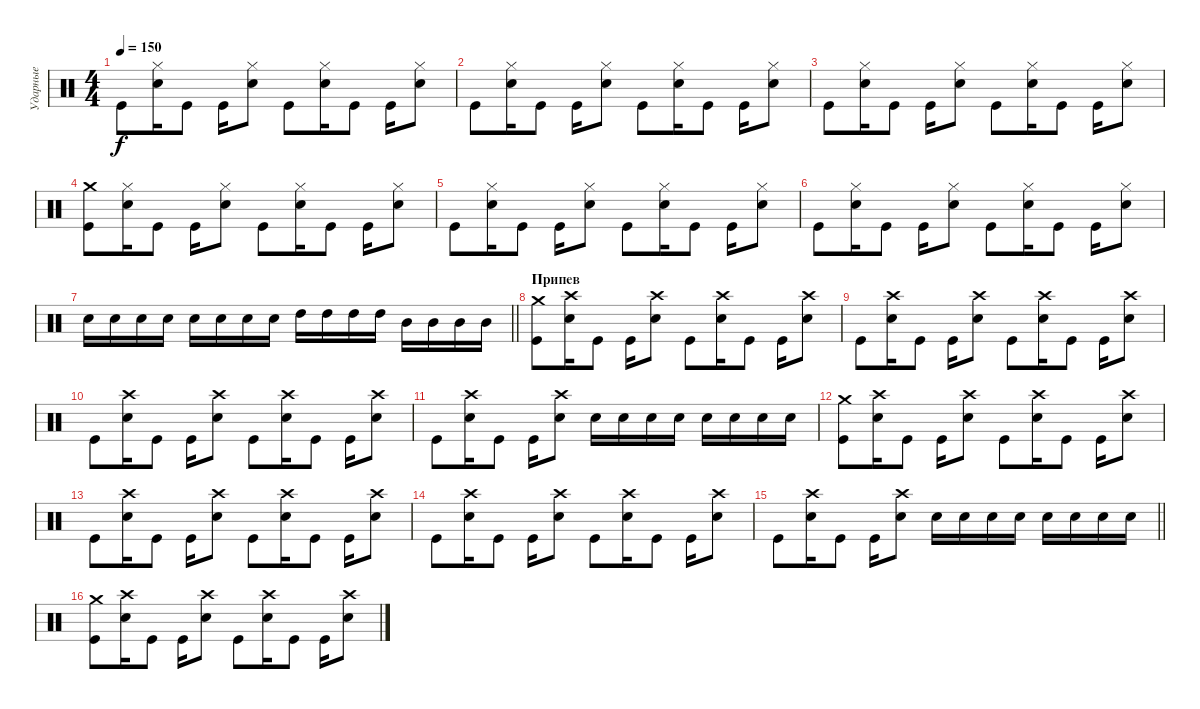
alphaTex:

\track ("Ударные" "Ударные") {instrument percussion}
\staff {score}
\articulation defaults
\ts (4 4)
\tempo 150
\clef neutral
\ks c "Kick (hit)".8{dy f}
("Hi-Hat (closed)" "Electric Snare (hit)").16 "Kick (hit)".8 "Kick (hit)".16 ("Hi-Hat (closed)" "Electric Snare (hit)").8 "Kick (hit)".8 ("Hi-Hat (closed)" "Electric Snare (hit)").16 "Kick (hit)".8 "Kick (hit)".16 ("Hi-Hat (closed)" "Electric Snare (hit)").8 |
"Kick (hit)".8 ("Hi-Hat (closed)" "Electric Snare (hit)").16 "Kick (hit)".8 "Kick (hit)".16 ("Hi-Hat (closed)" "Electric Snare (hit)").8 "Kick (hit)".8 ("Hi-Hat (closed)" "Electric Snare (hit)").16 "Kick (hit)".8 "Kick (hit)".16 ("Hi-Hat (closed)" "Electric Snare (hit)").8 |
"Kick (hit)".8 ("Hi-Hat (closed)" "Electric Snare (hit)").16 "Kick (hit)".8 "Kick (hit)".16 ("Hi-Hat (closed)" "Electric Snare (hit)").8 "Kick (hit)".8 ("Hi-Hat (closed)" "Electric Snare (hit)").16 "Kick (hit)".8 "Kick (hit)".16 ("Hi-Hat (closed)" "Electric Snare (hit)").8 |
("Crash medium (hit)" "Kick (hit)").8 ("Hi-Hat (closed)" "Electric Snare (hit)").16 "Kick (hit)".8 "Kick (hit)".16 ("Hi-Hat (closed)" "Electric Snare (hit)").8 "Kick (hit)".8 ("Hi-Hat (closed)" "Electric Snare (hit)").16 "Kick (hit)".8 "Kick (hit)".16 ("Hi-Hat (closed)" "Electric Snare (hit)").8 |
"Kick (hit)".8 ("Hi-Hat (closed)" "Electric Snare (hit)").16 "Kick (hit)".8 "Kick (hit)".16 ("Hi-Hat (closed)" "Electric Snare (hit)").8 "Kick (hit)".8 ("Hi-Hat (closed)" "Electric Snare (hit)").16 "Kick (hit)".8 "Kick (hit)".16 ("Hi-Hat (closed)" "Electric Snare (hit)").8 |
"Kick (hit)".8 ("Hi-Hat (closed)" "Electric Snare (hit)").16 "Kick (hit)".8 "Kick (hit)".16 ("Hi-Hat (closed)" "Electric Snare (hit)").8 "Kick (hit)".8 ("Hi-Hat (closed)" "Electric Snare (hit)").16 "Kick (hit)".8 "Kick (hit)".16 ("Hi-Hat (closed)" "Electric Snare (hit)").8 |
\barLineRight lightlight "Electric Snare (hit)".16 "Electric Snare (hit)".16 "Electric Snare (hit)".16 "Electric Snare (hit)".16 "Electric Snare (hit)".16 "Electric Snare (hit)".16 "Electric Snare (hit)".16 "Electric Snare (hit)".16 "High Tom (hit)".16 "High Tom (hit)".16 "High Tom (hit)".16 "High Tom (hit)".16 "Mid Tom (hit)".16 "Mid Tom (hit)".16 "Mid Tom (hit)".16 "Mid Tom (hit)".16
|
\section ("" "Припев")
("Crash medium (hit)" "Kick (hit)").8 ("Crash high (hit)" "Electric Snare (hit)").16 "Kick (hit)".8 "Kick (hit)".16 ("Crash high (hit)" "Electric Snare (hit)").8 "Kick (hit)".8 ("Crash high (hit)" "Electric Snare (hit)").16 "Kick (hit)".8 "Kick (hit)".16 ("Crash high (hit)" "Electric Snare (hit)").8 |
"Kick (hit)".8 ("Crash high (hit)" "Electric Snare (hit)").16 "Kick (hit)".8 "Kick (hit)".16 ("Crash high (hit)" "Electric Snare (hit)").8 "Kick (hit)".8 ("Crash high (hit)" "Electric Snare (hit)").16 "Kick (hit)".8 "Kick (hit)".16 ("Crash high (hit)" "Electric Snare (hit)").8 |
"Kick (hit)".8 ("Crash high (hit)" "Electric Snare (hit)").16 "Kick (hit)".8 "Kick (hit)".16 ("Crash high (hit)" "Electric Snare (hit)").8 "Kick (hit)".8 ("Crash high (hit)" "Electric Snare (hit)").16 "Kick (hit)".8 "Kick (hit)".16 ("Crash high (hit)" "Electric Snare (hit)").8 |
"Kick (hit)".8 ("Crash high (hit)" "Electric Snare (hit)").16 "Kick (hit)".8 "Kick (hit)".16 ("Crash high (hit)" "Electric Snare (hit)").8 "Electric Snare (hit)".16 "Electric Snare (hit)".16 "Electric Snare (hit)".16 "Electric Snare (hit)".16 "Electric Snare (hit)".16 "Electric Snare (hit)".16 "Electric Snare (hit)".16 "Electric Snare (hit)".16 |
("Crash medium (hit)" "Kick (hit)").8 ("Crash high (hit)" "Electric Snare (hit)").16 "Kick (hit)".8 "Kick (hit)".16 ("Crash high (hit)" "Electric Snare (hit)").8 "Kick (hit)".8 ("Crash high (hit)" "Electric Snare (hit)").16 "Kick (hit)".8 "Kick (hit)".16 ("Crash high (hit)" "Electric Snare (hit)").8 |
"Kick (hit)".8 ("Crash high (hit)" "Electric Snare (hit)").16 "Kick (hit)".8 "Kick (hit)".16 ("Crash high (hit)" "Electric Snare (hit)").8 "Kick (hit)".8 ("Crash high (hit)" "Electric Snare (hit)").16 "Kick (hit)".8 "Kick (hit)".16 ("Crash high (hit)" "Electric Snare (hit)").8 |
"Kick (hit)".8 ("Crash high (hit)" "Electric Snare (hit)").16 "Kick (hit)".8 "Kick (hit)".16 ("Crash high (hit)" "Electric Snare (hit)").8 "Kick (hit)".8 ("Crash high (hit)" "Electric Snare (hit)").16 "Kick (hit)".8 "Kick (hit)".16 ("Crash high (hit)" "Electric Snare (hit)").8 |
\barLineRight lightlight "Kick (hit)".8
("Crash high (hit)" "Electric Snare (hit)").16 "Kick (hit)".8 "Kick (hit)".16 ("Crash high (hit)" "Electric Snare (hit)").8 "Electric Snare (hit)".16 "Electric Snare (hit)".16 "Electric Snare (hit)".16 "Electric Snare (hit)".16 "Electric Snare (hit)".16 "Electric Snare (hit)".16 "Electric Snare (hit)".16 "Electric Snare (hit)".16 |
\section ("" " ")
("Crash medium (hit)" "Kick (hit)").8 ("Crash high (hit)" "Electric Snare (hit)").16 "Kick (hit)".8 "Kick (hit)".16 ("Crash high (hit)" "Electric Snare (hit)").8 "Kick (hit)".8 ("Crash high (hit)" "Electric Snare (hit)").16 "Kick (hit)".8 "Kick (hit)".16 ("Crash high (hit)" "Electric Snare (hit)").8
